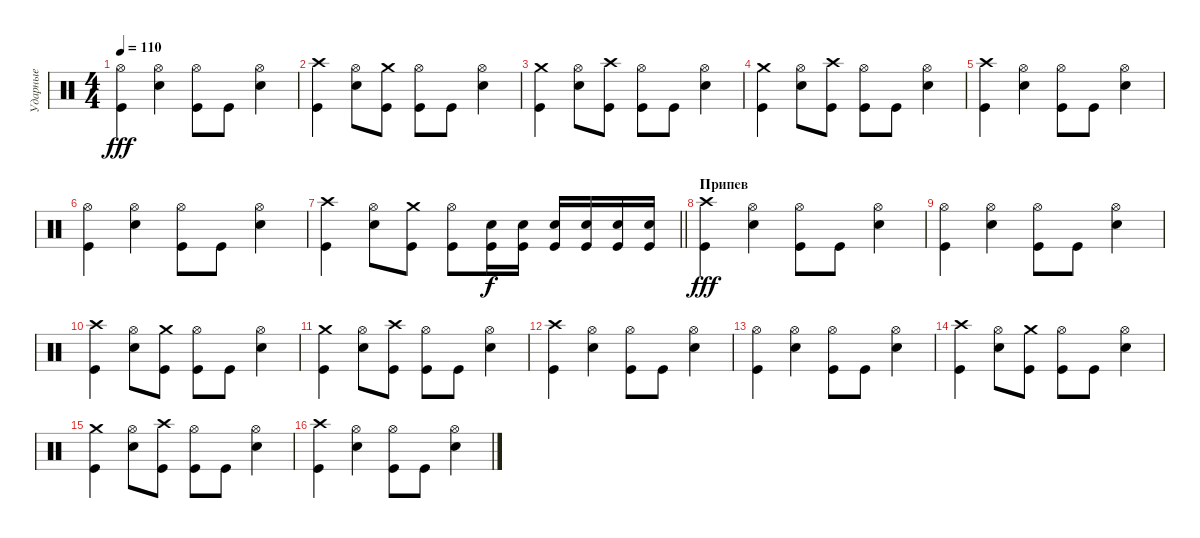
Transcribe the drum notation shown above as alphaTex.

\track ("Ударные" "Ударные") {instrument percussion}
\staff {score}
\articulation defaults
\ts (4 4)
\tempo 110
\clef neutral
\ks c
("Hi-Hat (open)" "Kick (hit)").4{dy fff} ("Hi-Hat (open)" "Electric Snare (hit)").4 ("Hi-Hat (open)" "Kick (hit)").8 "Kick (hit)".8 ("Hi-Hat (open)" "Electric Snare (hit)").4 |
("Crash high (hit)" "Kick (hit)").4 ("Hi-Hat (open)" "Electric Snare (hit)").8 ("Crash medium (hit)" "Kick (hit)").8 ("Hi-Hat (open)" "Kick (hit)").8 "Kick (hit)".8 ("Hi-Hat (open)" "Electric Snare (hit)").4 |
("Crash medium (hit)" "Kick (hit)").4 ("Hi-Hat (open)" "Electric Snare (hit)").8 ("Crash high (hit)" "Kick (hit)").8 ("Hi-Hat (open)" "Kick (hit)").8 "Kick (hit)".8 ("Hi-Hat (open)" "Electric Snare (hit)").4 |
("Crash medium (hit)" "Kick (hit)").4 ("Hi-Hat (open)" "Electric Snare (hit)").8 ("Crash high (hit)" "Kick (hit)").8 ("Hi-Hat (open)" "Kick (hit)").8 "Kick (hit)".8 ("Hi-Hat (open)" "Electric Snare (hit)").4 |
("Crash high (hit)" "Kick (hit)").4 ("Hi-Hat (open)" "Electric Snare (hit)").4 ("Hi-Hat (open)" "Kick (hit)").8 "Kick (hit)".8 ("Hi-Hat (open)" "Electric Snare (hit)").4 |
("Hi-Hat (open)" "Kick (hit)").4 ("Hi-Hat (open)" "Electric Snare (hit)").4 ("Hi-Hat (open)" "Kick (hit)").8 "Kick (hit)".8 ("Hi-Hat (open)" "Electric Snare (hit)").4 |
\barLineRight lightlight
("Crash high (hit)" "Kick (hit)").4 ("Hi-Hat (open)" "Electric Snare (hit)").8 ("Crash medium (hit)" "Kick (hit)").8 ("Hi-Hat (open)" "Kick (hit)").8 ("Snare (hit) 2" "Kick (hit)").16{dy f} ("Kick (hit)" "Snare (hit) 2").16 ("Snare (hit) 2" "Kick (hit)").16 ("Kick (hit)" "Snare (hit) 2").16 ("Snare (hit) 2" "Kick (hit)").16 ("Snare (hit) 2" "Kick (hit)").16 |
\section ("" "Припев")
("Crash high (hit)" "Kick (hit)").4{dy fff} ("Hi-Hat (open)" "Electric Snare (hit)").4 ("Hi-Hat (open)" "Kick (hit)").8 "Kick (hit)".8 ("Hi-Hat (open)" "Electric Snare (hit)").4 |
("Hi-Hat (open)" "Kick (hit)").4 ("Hi-Hat (open)" "Electric Snare (hit)").4 ("Hi-Hat (open)" "Kick (hit)").8 "Kick (hit)".8 ("Hi-Hat (open)" "Electric Snare (hit)").4 |
("Crash high (hit)" "Kick (hit)").4 ("Hi-Hat (open)" "Electric Snare (hit)").8 ("Crash medium (hit)" "Kick (hit)").8 ("Hi-Hat (open)" "Kick (hit)").8 "Kick (hit)".8 ("Hi-Hat (open)" "Electric Snare (hit)").4 |
("Crash medium (hit)" "Kick (hit)").4 ("Hi-Hat (open)" "Electric Snare (hit)").8 ("Crash high (hit)" "Kick (hit)").8 ("Hi-Hat (open)" "Kick (hit)").8 "Kick (hit)".8 ("Hi-Hat (open)" "Electric Snare (hit)").4 |
("Crash high (hit)" "Kick (hit)").4 ("Hi-Hat (open)" "Electric Snare (hit)").4 ("Hi-Hat (open)" "Kick (hit)").8 "Kick (hit)".8 ("Hi-Hat (open)" "Electric Snare (hit)").4 |
("Hi-Hat (open)" "Kick (hit)").4 ("Hi-Hat (open)" "Electric Snare (hit)").4 ("Hi-Hat (open)" "Kick (hit)").8 "Kick (hit)".8 ("Hi-Hat (open)" "Electric Snare (hit)").4 |
("Crash high (hit)" "Kick (hit)").4 ("Hi-Hat (open)" "Electric Snare (hit)").8 ("Crash medium (hit)" "Kick (hit)").8 ("Hi-Hat (open)" "Kick (hit)").8 "Kick (hit)".8 ("Hi-Hat (open)" "Electric Snare (hit)").4 |
("Crash medium (hit)" "Kick (hit)").4 ("Hi-Hat (open)" "Electric Snare (hit)").8 ("Crash high (hit)" "Kick (hit)").8 ("Hi-Hat (open)" "Kick (hit)").8 "Kick (hit)".8 ("Hi-Hat (open)" "Electric Snare (hit)").4 |
("Crash high (hit)" "Kick (hit)").4 ("Hi-Hat (open)" "Electric Snare (hit)").4 ("Hi-Hat (open)" "Kick (hit)").8 "Kick (hit)".8 ("Hi-Hat (open)" "Electric Snare (hit)").4
